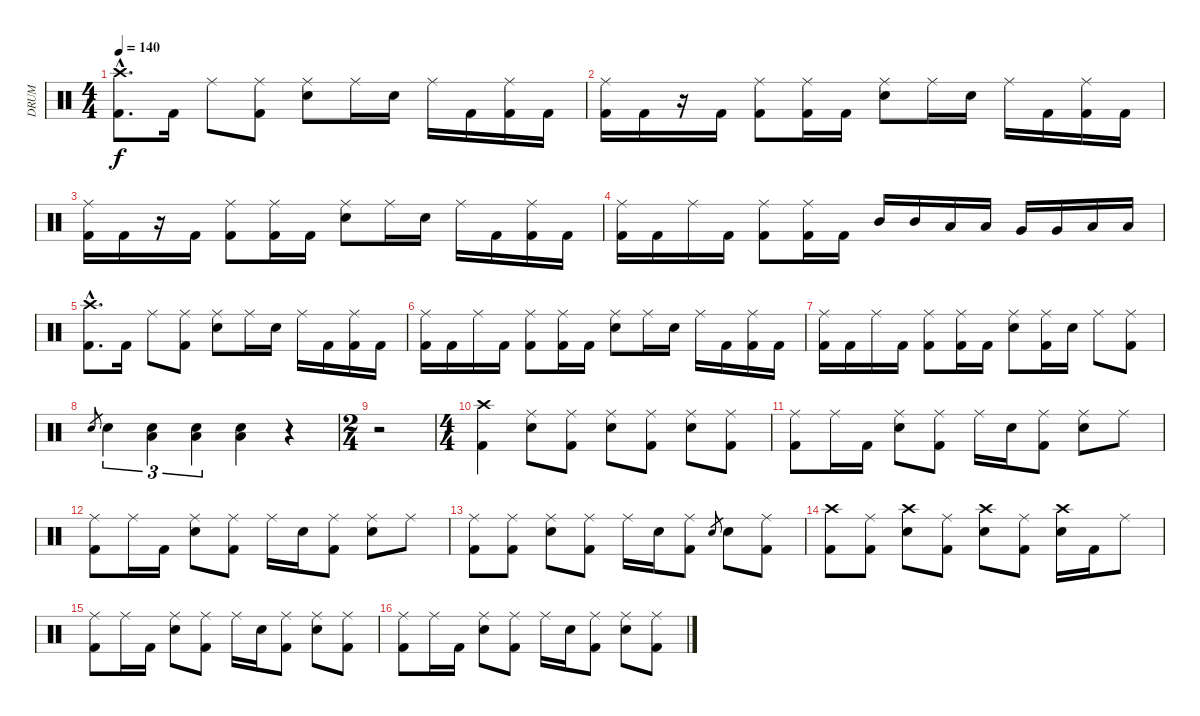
\track ("DRUM" "DRUM") {instrument percussion}
\staff {score}
\articulation defaults
\ts (4 4)
\tempo 140
\clef neutral
\ks c
("Crash high (hit)"{hac} "Kick (hit) 2"{hac}).8{d dy f} "Kick (hit) 2".16 "Ride (middle)".8 ("Ride (middle)" "Kick (hit) 2").8 ("Ride (middle)" "Electric Snare (hit)").8 "Ride (middle)".16 "Electric Snare (hit)".16 "Ride (middle)".16 "Kick (hit) 2".16 ("Ride (middle)" "Kick (hit) 2").16 "Kick (hit) 2".16 |
("Ride (middle)" "Kick (hit) 2").16 "Kick (hit) 2".16 r.16 "Kick (hit) 2".16 ("Ride (middle)" "Kick (hit) 2").8 ("Ride (middle)" "Kick (hit) 2").16 "Kick (hit) 2".16 ("Ride (middle)" "Electric Snare (hit)").8 "Ride (middle)".16 "Electric Snare (hit)".16 "Ride (middle)".16 "Kick (hit) 2".16 ("Ride (middle)" "Kick (hit) 2").16 "Kick (hit) 2".16 |
("Ride (middle)" "Kick (hit) 2").16 "Kick (hit) 2".16 r.16 "Kick (hit) 2".16 ("Ride (middle)" "Kick (hit) 2").8 ("Ride (middle)" "Kick (hit) 2").16 "Kick (hit) 2".16 ("Ride (middle)" "Electric Snare (hit)").8 "Ride (middle)".16 "Electric Snare (hit)".16 "Ride (middle)".16 "Kick (hit) 2".16 ("Ride (middle)" "Kick (hit) 2").16 "Kick (hit) 2".16 |
("Ride (middle)" "Kick (hit) 2").16 "Kick (hit) 2".16 "Ride (middle)".16 "Kick (hit) 2".16 ("Ride (middle)" "Kick (hit) 2").8 ("Ride (middle)" "Kick (hit) 2").16 "Kick (hit) 2".16 "Mid Tom (hit)".16 "Mid Tom (hit)".16 "Low Tom (hit)".16 "Low Tom (hit)".16 "Very Low Tom (hit)".16 "Very Low Tom (hit)".16 "Low Floor Tom (hit)".16 "Low Floor Tom (hit)".16 |
("Crash high (hit)"{hac} "Kick (hit) 2"{hac}).8{d} "Kick (hit) 2".16 "Ride (middle)".8 ("Ride (middle)" "Kick (hit) 2").8 ("Ride (middle)" "Electric Snare (hit)").8 "Ride (middle)".16 "Electric Snare (hit)".16 "Ride (middle)".16 "Kick (hit) 2".16 ("Ride (middle)" "Kick (hit) 2").16 "Kick (hit) 2".16 |
("Ride (middle)" "Kick (hit) 2").16 "Kick (hit) 2".16 "Ride (middle)".16 "Kick (hit) 2".16 ("Ride (middle)" "Kick (hit) 2").8 ("Ride (middle)" "Kick (hit) 2").16 "Kick (hit) 2".16 ("Ride (middle)" "Electric Snare (hit)").8 "Ride (middle)".16 "Electric Snare (hit)".16 "Ride (middle)".16 "Kick (hit) 2".16 ("Ride (middle)" "Kick (hit) 2").16 "Kick (hit) 2".16 |
("Ride (middle)" "Kick (hit) 2").16 "Kick (hit) 2".16 "Ride (middle)".16 "Kick (hit) 2".16 ("Ride (middle)" "Kick (hit) 2").8 ("Ride (middle)" "Kick (hit) 2").16 "Kick (hit) 2".16 ("Ride (middle)" "Electric Snare (hit)").8 ("Ride (middle)" "Kick (hit) 2").16 "Electric Snare (hit)".16 "Ride (middle)".8 ("Ride (middle)" "Kick (hit) 2").8 |
"Electric Snare (hit)".8{gr} "Electric Snare (hit)".4{tu (3 2)} ("Electric Snare (hit)" "Low Floor Tom (hit)").4{tu (3 2)} ("Electric Snare (hit)" "Low Floor Tom (hit)").4{tu (3 2)} ("Electric Snare (hit)" "Low Floor Tom (hit)").4 r.4 |
\ts (2 4)
r.2 |
\ts (4 4)
("Crash high (hit)" "Kick (hit) 2").4 ("Ride (middle)" "Electric Snare (hit)").8 ("Ride (middle)" "Kick (hit) 2").8 ("Ride (middle)" "Electric Snare (hit)").8 ("Ride (middle)" "Kick (hit) 2").8 ("Ride (middle)" "Electric Snare (hit)").8 ("Ride (middle)" "Kick (hit) 2").8 |
("Ride (middle)" "Kick (hit) 2").8 "Ride (middle)".16 "Kick (hit) 2".16 ("Ride (middle)" "Electric Snare (hit)").8 ("Ride (middle)" "Kick (hit) 2").8 "Ride (middle)".16 "Electric Snare (hit)".16 ("Ride (middle)" "Kick (hit) 2").8 ("Ride (middle)" "Electric Snare (hit)").8 "Ride (middle)".8 |
("Ride (middle)" "Kick (hit) 2").8 "Ride (middle)".16 "Kick (hit) 2".16 ("Ride (middle)" "Electric Snare (hit)").8 ("Ride (middle)" "Kick (hit) 2").8 "Ride (middle)".16 "Electric Snare (hit)".16 ("Ride (middle)" "Kick (hit) 2").8 ("Ride (middle)" "Electric Snare (hit)").8 "Ride (middle)".8 |
("Ride (middle)" "Kick (hit) 2").8 ("Ride (middle)" "Kick (hit) 2").8 ("Ride (middle)" "Electric Snare (hit)").8 ("Ride (middle)" "Kick (hit) 2").8 "Ride (middle)".16 "Electric Snare (hit)".16 ("Ride (middle)" "Kick (hit) 2").8 "Electric Snare (hit)".8{gr} "Electric Snare (hit)".8 ("Ride (middle)" "Kick (hit) 2").8 |
("Crash high (hit)" "Kick (hit) 2").8 ("Ride (middle)" "Kick (hit) 2").8 ("Crash high (hit)" "Electric Snare (hit)").8 ("Ride (middle)" "Kick (hit) 2").8 ("Crash high (hit)" "Electric Snare (hit)").8 ("Ride (middle)" "Kick (hit) 2").8 ("Crash high (hit)" "Electric Snare (hit)").16 "Kick (hit) 2".16 "Ride (middle)".8 |
("Ride (middle)" "Kick (hit) 2").8 "Ride (middle)".16 "Kick (hit) 2".16 ("Ride (middle)" "Electric Snare (hit)").8 ("Ride (middle)" "Kick (hit) 2").8 "Ride (middle)".16 "Electric Snare (hit)".16 ("Ride (middle)" "Kick (hit) 2").8 ("Ride (middle)" "Electric Snare (hit)").8 ("Ride (middle)" "Kick (hit) 2").8 |
("Ride (middle)" "Kick (hit) 2").8 "Ride (middle)".16 "Kick (hit) 2".16 ("Ride (middle)" "Electric Snare (hit)").8 ("Ride (middle)" "Kick (hit) 2").8 "Ride (middle)".16 "Electric Snare (hit)".16 ("Ride (middle)" "Kick (hit) 2").8 ("Ride (middle)" "Electric Snare (hit)").8 ("Ride (middle)" "Kick (hit) 2").8
